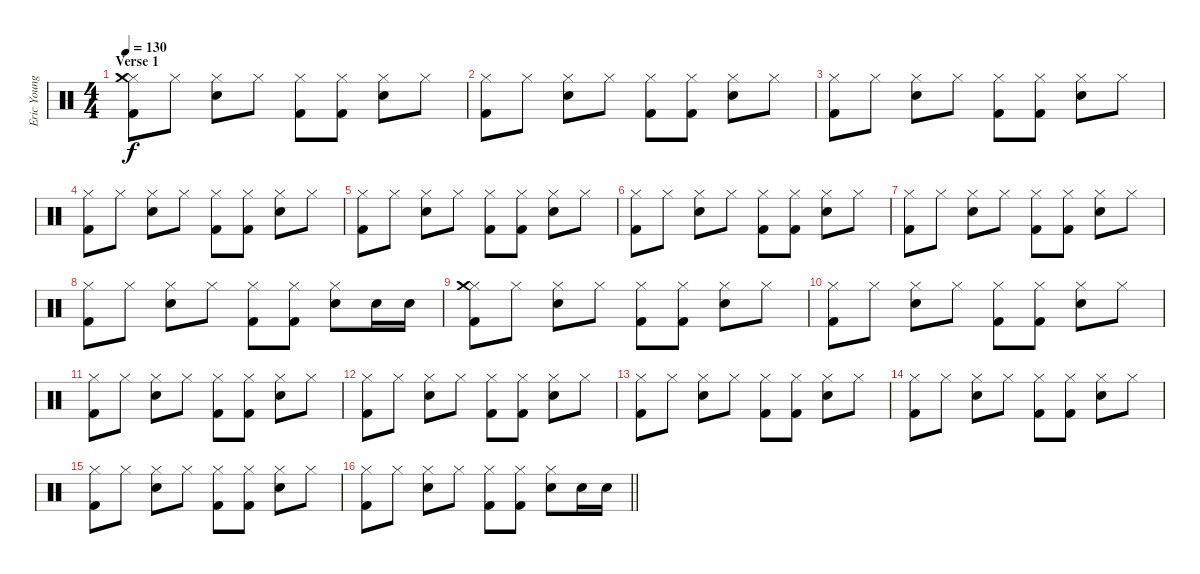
\track ("Eric Young (Drums)" "Eric Young") {instrument percussion}
\staff {score}
\articulation defaults
\ts (4 4)
\section ("" "Verse 1")
\tempo 130
\clef neutral
\ks c
("Hi-Hat (closed)" "Kick (hit) 2" "Crash medium (hit)").8{dy f} "Hi-Hat (closed)".8 ("Hi-Hat (closed)" "Snare (hit) 2").8 "Hi-Hat (closed)".8 ("Hi-Hat (closed)" "Kick (hit) 2").8 ("Hi-Hat (closed)" "Kick (hit) 2").8 ("Hi-Hat (closed)" "Snare (hit) 2").8 "Hi-Hat (closed)".8 |
("Hi-Hat (closed)" "Kick (hit) 2").8 "Hi-Hat (closed)".8 ("Hi-Hat (closed)" "Snare (hit) 2").8 "Hi-Hat (closed)".8 ("Hi-Hat (closed)" "Kick (hit) 2").8 ("Hi-Hat (closed)" "Kick (hit) 2").8 ("Hi-Hat (closed)" "Snare (hit) 2").8 "Hi-Hat (closed)".8 |
("Hi-Hat (closed)" "Kick (hit) 2").8 "Hi-Hat (closed)".8 ("Hi-Hat (closed)" "Snare (hit) 2").8 "Hi-Hat (closed)".8 ("Hi-Hat (closed)" "Kick (hit) 2").8 ("Hi-Hat (closed)" "Kick (hit) 2").8 ("Hi-Hat (closed)" "Snare (hit) 2").8 "Hi-Hat (closed)".8 |
("Hi-Hat (closed)" "Kick (hit) 2").8 "Hi-Hat (closed)".8 ("Hi-Hat (closed)" "Snare (hit) 2").8 "Hi-Hat (closed)".8 ("Hi-Hat (closed)" "Kick (hit) 2").8 ("Hi-Hat (closed)" "Kick (hit) 2").8 ("Hi-Hat (closed)" "Snare (hit) 2").8 "Hi-Hat (closed)".8 |
("Hi-Hat (closed)" "Kick (hit) 2").8 "Hi-Hat (closed)".8 ("Hi-Hat (closed)" "Snare (hit) 2").8 "Hi-Hat (closed)".8 ("Hi-Hat (closed)" "Kick (hit) 2").8 ("Hi-Hat (closed)" "Kick (hit) 2").8 ("Hi-Hat (closed)" "Snare (hit) 2").8 "Hi-Hat (closed)".8 |
("Hi-Hat (closed)" "Kick (hit) 2").8 "Hi-Hat (closed)".8 ("Hi-Hat (closed)" "Snare (hit) 2").8 "Hi-Hat (closed)".8 ("Hi-Hat (closed)" "Kick (hit) 2").8 ("Hi-Hat (closed)" "Kick (hit) 2").8 ("Hi-Hat (closed)" "Snare (hit) 2").8 "Hi-Hat (closed)".8 |
("Hi-Hat (closed)" "Kick (hit) 2").8 "Hi-Hat (closed)".8 ("Hi-Hat (closed)" "Snare (hit) 2").8 "Hi-Hat (closed)".8 ("Hi-Hat (closed)" "Kick (hit) 2").8 ("Hi-Hat (closed)" "Kick (hit) 2").8 ("Hi-Hat (closed)" "Snare (hit) 2").8 "Hi-Hat (closed)".8 |
("Hi-Hat (closed)" "Kick (hit) 2").8 "Hi-Hat (closed)".8 ("Hi-Hat (closed)" "Snare (hit) 2").8 "Hi-Hat (closed)".8 ("Hi-Hat (closed)" "Kick (hit) 2").8 ("Hi-Hat (closed)" "Kick (hit) 2").8 ("Hi-Hat (closed)" "Snare (hit) 2").8 "Snare (hit) 2".16 "Snare (hit) 2".16 |
("Hi-Hat (closed)" "Kick (hit) 2" "Crash medium (hit)").8 "Hi-Hat (closed)".8 ("Hi-Hat (closed)" "Snare (hit) 2").8 "Hi-Hat (closed)".8 ("Hi-Hat (closed)" "Kick (hit) 2").8 ("Hi-Hat (closed)" "Kick (hit) 2").8 ("Hi-Hat (closed)" "Snare (hit) 2").8 "Hi-Hat (closed)".8 |
("Hi-Hat (closed)" "Kick (hit) 2").8 "Hi-Hat (closed)".8 ("Hi-Hat (closed)" "Snare (hit) 2").8 "Hi-Hat (closed)".8 ("Hi-Hat (closed)" "Kick (hit) 2").8 ("Hi-Hat (closed)" "Kick (hit) 2").8 ("Hi-Hat (closed)" "Snare (hit) 2").8 "Hi-Hat (closed)".8 |
("Hi-Hat (closed)" "Kick (hit) 2").8 "Hi-Hat (closed)".8 ("Hi-Hat (closed)" "Snare (hit) 2").8 "Hi-Hat (closed)".8 ("Hi-Hat (closed)" "Kick (hit) 2").8 ("Hi-Hat (closed)" "Kick (hit) 2").8 ("Hi-Hat (closed)" "Snare (hit) 2").8 "Hi-Hat (closed)".8 |
("Hi-Hat (closed)" "Kick (hit) 2").8 "Hi-Hat (closed)".8 ("Hi-Hat (closed)" "Snare (hit) 2").8 "Hi-Hat (closed)".8 ("Hi-Hat (closed)" "Kick (hit) 2").8 ("Hi-Hat (closed)" "Kick (hit) 2").8 ("Hi-Hat (closed)" "Snare (hit) 2").8 "Hi-Hat (closed)".8 |
("Hi-Hat (closed)" "Kick (hit) 2").8 "Hi-Hat (closed)".8 ("Hi-Hat (closed)" "Snare (hit) 2").8 "Hi-Hat (closed)".8 ("Hi-Hat (closed)" "Kick (hit) 2").8 ("Hi-Hat (closed)" "Kick (hit) 2").8 ("Hi-Hat (closed)" "Snare (hit) 2").8 "Hi-Hat (closed)".8 |
("Hi-Hat (closed)" "Kick (hit) 2").8 "Hi-Hat (closed)".8 ("Hi-Hat (closed)" "Snare (hit) 2").8 "Hi-Hat (closed)".8 ("Hi-Hat (closed)" "Kick (hit) 2").8 ("Hi-Hat (closed)" "Kick (hit) 2").8 ("Hi-Hat (closed)" "Snare (hit) 2").8 "Hi-Hat (closed)".8 |
("Hi-Hat (closed)" "Kick (hit) 2").8 "Hi-Hat (closed)".8 ("Hi-Hat (closed)" "Snare (hit) 2").8 "Hi-Hat (closed)".8 ("Hi-Hat (closed)" "Kick (hit) 2").8 ("Hi-Hat (closed)" "Kick (hit) 2").8 ("Hi-Hat (closed)" "Snare (hit) 2").8 "Hi-Hat (closed)".8 |
\barLineRight lightlight
("Hi-Hat (closed)" "Kick (hit) 2").8 "Hi-Hat (closed)".8 ("Hi-Hat (closed)" "Snare (hit) 2").8 "Hi-Hat (closed)".8 ("Hi-Hat (closed)" "Kick (hit) 2").8 ("Hi-Hat (closed)" "Kick (hit) 2").8 ("Hi-Hat (closed)" "Snare (hit) 2").8 "Snare (hit) 2".16 "Snare (hit) 2".16
